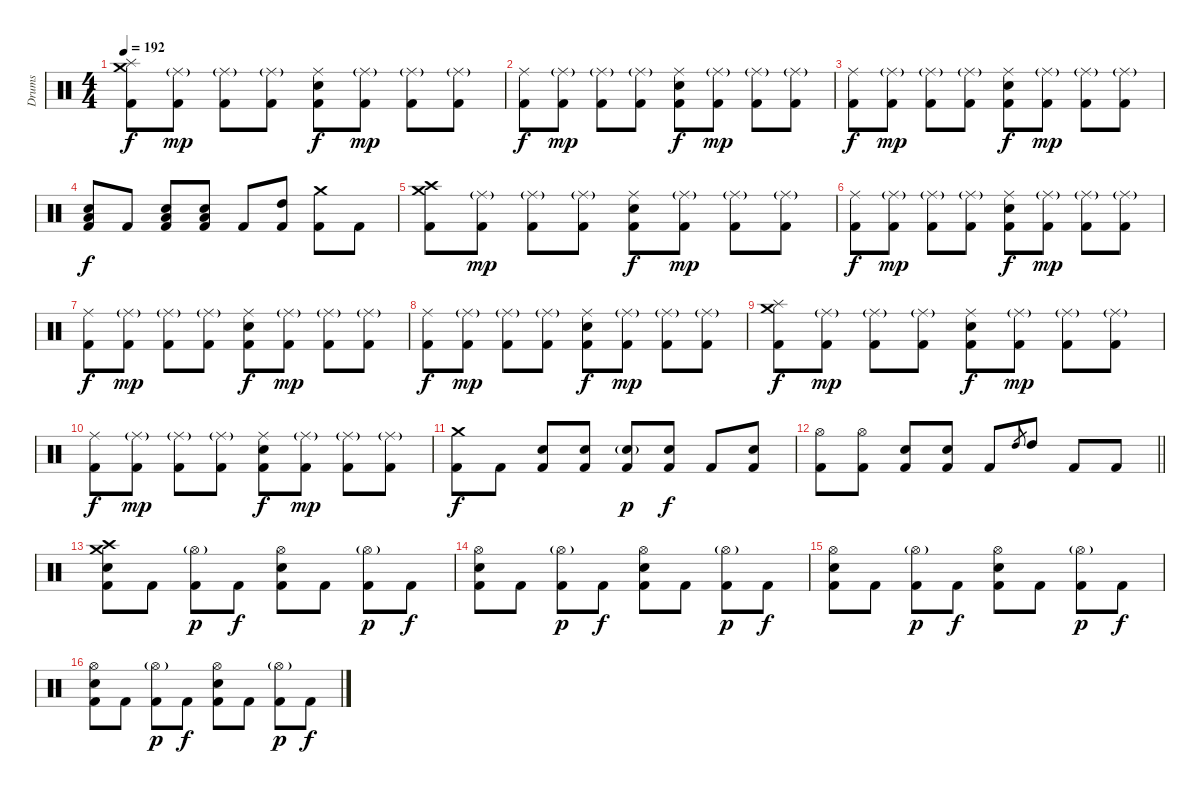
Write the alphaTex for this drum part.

\track ("Drums" "Drums") {instrument percussion}
\staff {score}
\articulation defaults
\ts (4 4)
\tempo 192
\clef neutral
\ks c
("Crash medium (hit)" "Splash (hit)" "Kick (hit) 2").8{dy f} ("Ride (middle)"{g} "Kick (hit) 2").8{dy mp} ("Ride (middle)"{g} "Kick (hit) 2").8 ("Ride (middle)"{g} "Kick (hit) 2").8 ("Ride (middle)" "Electric Snare (hit)" "Kick (hit) 2").8{dy f} ("Ride (middle)"{g} "Kick (hit) 2").8{dy mp} ("Ride (middle)"{g} "Kick (hit) 2").8 ("Ride (middle)"{g} "Kick (hit) 2").8 |
("Ride (middle)" "Kick (hit) 2").8{dy f} ("Ride (middle)"{g} "Kick (hit) 2").8{dy mp} ("Ride (middle)"{g} "Kick (hit) 2").8 ("Ride (middle)"{g} "Kick (hit) 2").8 ("Ride (middle)" "Electric Snare (hit)" "Kick (hit) 2").8{dy f} ("Ride (middle)"{g} "Kick (hit) 2").8{dy mp} ("Ride (middle)"{g} "Kick (hit) 2").8 ("Ride (middle)"{g} "Kick (hit) 2").8 |
("Ride (middle)" "Kick (hit) 2").8{dy f} ("Ride (middle)"{g} "Kick (hit) 2").8{dy mp} ("Ride (middle)"{g} "Kick (hit) 2").8 ("Ride (middle)"{g} "Kick (hit) 2").8 ("Ride (middle)" "Electric Snare (hit)" "Kick (hit) 2").8{dy f} ("Ride (middle)"{g} "Kick (hit) 2").8{dy mp} ("Ride (middle)"{g} "Kick (hit) 2").8 ("Ride (middle)"{g} "Kick (hit) 2").8 |
("Low Tom (hit)" "Electric Snare (hit)" "Kick (hit) 2").8{dy f} "Kick (hit) 2".8 ("Low Tom (hit)" "Electric Snare (hit)" "Kick (hit) 2").8 ("Low Tom (hit)" "Electric Snare (hit)" "Kick (hit) 2").8 "Kick (hit) 2".8 ("High Tom (hit)" "Kick (hit) 2").8 ("Crash medium (hit)" "Kick (hit) 2").8 "Kick (hit) 2".8 |
("Crash high (hit)" "Crash medium (hit)" "Kick (hit) 2").8 ("Ride (middle)"{g} "Kick (hit) 2").8{dy mp} ("Ride (middle)"{g} "Kick (hit) 2").8 ("Ride (middle)"{g} "Kick (hit) 2").8 ("Ride (middle)" "Electric Snare (hit)" "Kick (hit) 2").8{dy f} ("Ride (middle)"{g} "Kick (hit) 2").8{dy mp} ("Ride (middle)"{g} "Kick (hit) 2").8 ("Ride (middle)"{g} "Kick (hit) 2").8 |
("Ride (middle)" "Kick (hit) 2").8{dy f} ("Ride (middle)"{g} "Kick (hit) 2").8{dy mp} ("Ride (middle)"{g} "Kick (hit) 2").8 ("Ride (middle)"{g} "Kick (hit) 2").8 ("Ride (middle)" "Electric Snare (hit)" "Kick (hit) 2").8{dy f} ("Ride (middle)"{g} "Kick (hit) 2").8{dy mp} ("Ride (middle)"{g} "Kick (hit) 2").8 ("Ride (middle)"{g} "Kick (hit) 2").8 |
("Ride (middle)" "Kick (hit) 2").8{dy f} ("Ride (middle)"{g} "Kick (hit) 2").8{dy mp} ("Ride (middle)"{g} "Kick (hit) 2").8 ("Ride (middle)"{g} "Kick (hit) 2").8 ("Ride (middle)" "Electric Snare (hit)" "Kick (hit) 2").8{dy f} ("Ride (middle)"{g} "Kick (hit) 2").8{dy mp} ("Ride (middle)"{g} "Kick (hit) 2").8 ("Ride (middle)"{g} "Kick (hit) 2").8 |
("Ride (middle)" "Kick (hit) 2").8{dy f} ("Ride (middle)"{g} "Kick (hit) 2").8{dy mp} ("Ride (middle)"{g} "Kick (hit) 2").8 ("Ride (middle)"{g} "Kick (hit) 2").8 ("Ride (middle)" "Electric Snare (hit)" "Kick (hit) 2").8{dy f} ("Ride (middle)"{g} "Kick (hit) 2").8{dy mp} ("Ride (middle)"{g} "Kick (hit) 2").8 ("Ride (middle)"{g} "Kick (hit) 2").8 |
("Crash medium (hit)" "Splash (hit)" "Kick (hit) 2").8{dy f} ("Ride (middle)"{g} "Kick (hit) 2").8{dy mp} ("Ride (middle)"{g} "Kick (hit) 2").8 ("Ride (middle)"{g} "Kick (hit) 2").8 ("Ride (middle)" "Electric Snare (hit)" "Kick (hit) 2").8{dy f} ("Ride (middle)"{g} "Kick (hit) 2").8{dy mp} ("Ride (middle)"{g} "Kick (hit) 2").8 ("Ride (middle)"{g} "Kick (hit) 2").8 |
("Ride (middle)" "Kick (hit) 2").8{dy f} ("Ride (middle)"{g} "Kick (hit) 2").8{dy mp} ("Ride (middle)"{g} "Kick (hit) 2").8 ("Ride (middle)"{g} "Kick (hit) 2").8 ("Ride (middle)" "Electric Snare (hit)" "Kick (hit) 2").8{dy f} ("Ride (middle)"{g} "Kick (hit) 2").8{dy mp} ("Ride (middle)"{g} "Kick (hit) 2").8 ("Ride (middle)"{g} "Kick (hit) 2").8 |
("Crash medium (hit)" "Kick (hit) 2").8{dy f} "Kick (hit) 2".8 ("Electric Snare (hit)" "Kick (hit) 2").8 ("Electric Snare (hit)" "Kick (hit) 2").8 ("Electric Snare (hit)"{g} "Kick (hit) 2").8{dy p} ("Electric Snare (hit)" "Kick (hit) 2").8{dy f} "Kick (hit) 2".8 ("Electric Snare (hit)" "Kick (hit) 2").8 |
\barLineRight lightlight
("Hi-Hat (open)" "Kick (hit) 2").8 ("Hi-Hat (open)" "Kick (hit) 2").8 ("Electric Snare (hit)" "Kick (hit) 2").8 ("Electric Snare (hit)" "Kick (hit) 2").8 "Kick (hit) 2".8 "High Tom (hit)".8{gr} "High Tom (hit)".8 "Kick (hit) 2".8 "Kick (hit) 2".8 |
("Crash high (hit)" "Crash medium (hit)" "Electric Snare (hit)" "Kick (hit) 2").8 "Kick (hit) 2".8 ("Hi-Hat (open)"{g} "Kick (hit) 2").8{dy p} "Kick (hit) 2".8{dy f} ("Hi-Hat (open)" "Electric Snare (hit)" "Kick (hit) 2").8 "Kick (hit) 2".8 ("Hi-Hat (open)"{g} "Kick (hit) 2").8{dy p} "Kick (hit) 2".8{dy f} |
("Hi-Hat (open)" "Electric Snare (hit)" "Kick (hit) 2").8 "Kick (hit) 2".8 ("Hi-Hat (open)"{g} "Kick (hit) 2").8{dy p} "Kick (hit) 2".8{dy f} ("Hi-Hat (open)" "Electric Snare (hit)" "Kick (hit) 2").8 "Kick (hit) 2".8 ("Hi-Hat (open)"{g} "Kick (hit) 2").8{dy p} "Kick (hit) 2".8{dy f} |
("Hi-Hat (open)" "Electric Snare (hit)" "Kick (hit) 2").8 "Kick (hit) 2".8 ("Hi-Hat (open)"{g} "Kick (hit) 2").8{dy p} "Kick (hit) 2".8{dy f} ("Hi-Hat (open)" "Electric Snare (hit)" "Kick (hit) 2").8 "Kick (hit) 2".8 ("Hi-Hat (open)"{g} "Kick (hit) 2").8{dy p} "Kick (hit) 2".8{dy f} |
("Hi-Hat (open)" "Electric Snare (hit)" "Kick (hit) 2").8 "Kick (hit) 2".8 ("Hi-Hat (open)"{g} "Kick (hit) 2").8{dy p} "Kick (hit) 2".8{dy f} ("Hi-Hat (open)" "Electric Snare (hit)" "Kick (hit) 2").8 "Kick (hit) 2".8 ("Hi-Hat (open)"{g} "Kick (hit) 2").8{dy p} "Kick (hit) 2".8{dy f}
